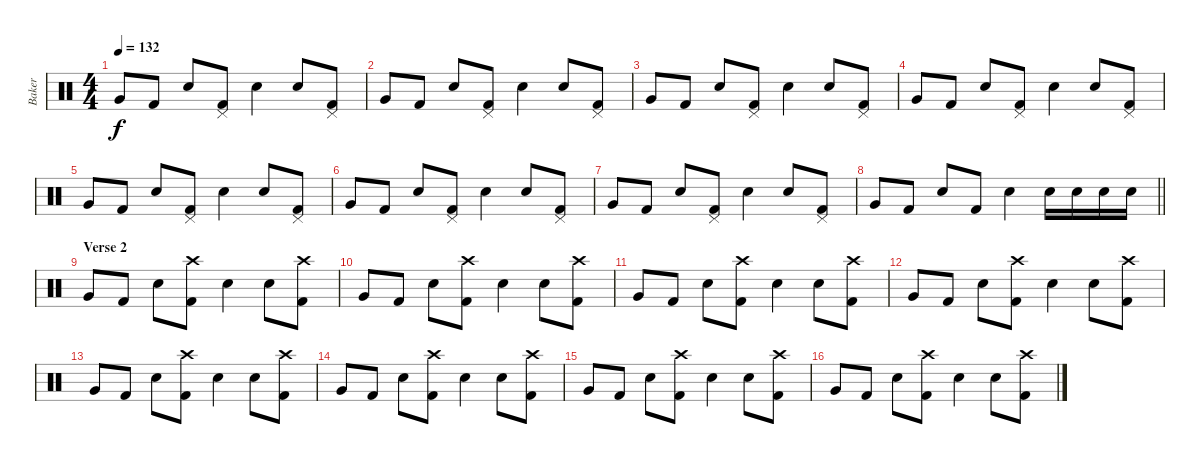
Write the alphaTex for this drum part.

\track ("Baker" "Baker") {instrument percussion}
\staff {score}
\articulation defaults
\ts (4 4)
\tempo 132
\clef neutral
\ks c "Very Low Tom (hit)".8{dy f} "Kick (hit) 2".8 "Snare (hit) 2".8
("Pedal Hi-Hat (hit)" "Kick (hit) 2").8 "Snare (hit) 2".4 "Snare (hit) 2".8 ("Pedal Hi-Hat (hit)" "Kick (hit) 2").8 |
"Very Low Tom (hit)".8 "Kick (hit) 2".8 "Snare (hit) 2".8 ("Pedal Hi-Hat (hit)" "Kick (hit) 2").8 "Snare (hit) 2".4 "Snare (hit) 2".8 ("Pedal Hi-Hat (hit)" "Kick (hit) 2").8 |
"Very Low Tom (hit)".8 "Kick (hit) 2".8 "Snare (hit) 2".8 ("Pedal Hi-Hat (hit)" "Kick (hit) 2").8 "Snare (hit) 2".4 "Snare (hit) 2".8 ("Pedal Hi-Hat (hit)" "Kick (hit) 2").8 |
"Very Low Tom (hit)".8 "Kick (hit) 2".8 "Snare (hit) 2".8 ("Pedal Hi-Hat (hit)" "Kick (hit) 2").8 "Snare (hit) 2".4 "Snare (hit) 2".8 ("Pedal Hi-Hat (hit)" "Kick (hit) 2").8 |
"Very Low Tom (hit)".8 "Kick (hit) 2".8 "Snare (hit) 2".8 ("Pedal Hi-Hat (hit)" "Kick (hit) 2").8 "Snare (hit) 2".4 "Snare (hit) 2".8 ("Pedal Hi-Hat (hit)" "Kick (hit) 2").8 |
"Very Low Tom (hit)".8 "Kick (hit) 2".8 "Snare (hit) 2".8 ("Pedal Hi-Hat (hit)" "Kick (hit) 2").8 "Snare (hit) 2".4 "Snare (hit) 2".8 ("Pedal Hi-Hat (hit)" "Kick (hit) 2").8 |
"Very Low Tom (hit)".8 "Kick (hit) 2".8 "Snare (hit) 2".8 ("Pedal Hi-Hat (hit)" "Kick (hit) 2").8 "Snare (hit) 2".4 "Snare (hit) 2".8 ("Pedal Hi-Hat (hit)" "Kick (hit) 2").8 |
\barLineRight lightlight "Very Low Tom (hit)".8 "Kick (hit) 2".8 "Snare (hit) 2".8 "Kick (hit) 2".8 "Snare (hit) 2".4 "Electric Snare (hit)".16 "Electric Snare (hit)".16 "Electric Snare (hit)".16 "Electric Snare (hit)".16
|
\section ("" "Verse 2")
"Very Low Tom (hit)".8 "Kick (hit) 2".8 "Snare (hit) 2".8 ("Crash high (hit)" "Kick (hit) 2").8 "Snare (hit) 2".4 "Snare (hit) 2".8 ("Crash high (hit)" "Kick (hit) 2").8 |
"Very Low Tom (hit)".8 "Kick (hit) 2".8 "Snare (hit) 2".8 ("Crash high (hit)" "Kick (hit) 2").8 "Snare (hit) 2".4 "Snare (hit) 2".8 ("Crash high (hit)" "Kick (hit) 2").8 |
"Very Low Tom (hit)".8 "Kick (hit) 2".8 "Snare (hit) 2".8 ("Crash high (hit)" "Kick (hit) 2").8 "Snare (hit) 2".4 "Snare (hit) 2".8 ("Crash high (hit)" "Kick (hit) 2").8 |
"Very Low Tom (hit)".8 "Kick (hit) 2".8 "Snare (hit) 2".8 ("Crash high (hit)" "Kick (hit) 2").8 "Snare (hit) 2".4 "Snare (hit) 2".8 ("Crash high (hit)" "Kick (hit) 2").8 |
"Very Low Tom (hit)".8 "Kick (hit) 2".8 "Snare (hit) 2".8 ("Crash high (hit)" "Kick (hit) 2").8 "Snare (hit) 2".4 "Snare (hit) 2".8 ("Crash high (hit)" "Kick (hit) 2").8 |
"Very Low Tom (hit)".8 "Kick (hit) 2".8 "Snare (hit) 2".8 ("Crash high (hit)" "Kick (hit) 2").8 "Snare (hit) 2".4 "Snare (hit) 2".8 ("Crash high (hit)" "Kick (hit) 2").8 |
"Very Low Tom (hit)".8 "Kick (hit) 2".8 "Snare (hit) 2".8 ("Crash high (hit)" "Kick (hit) 2").8 "Snare (hit) 2".4 "Snare (hit) 2".8 ("Crash high (hit)" "Kick (hit) 2").8 |
"Very Low Tom (hit)".8 "Kick (hit) 2".8 "Snare (hit) 2".8 ("Crash high (hit)" "Kick (hit) 2").8 "Snare (hit) 2".4 "Snare (hit) 2".8 ("Crash high (hit)" "Kick (hit) 2").8
